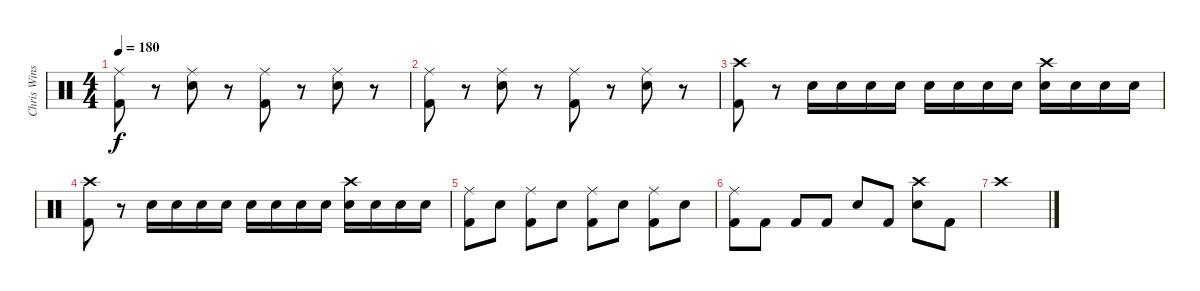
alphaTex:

\track ("Chris Winship (Drums)" "Chris Wins") {instrument percussion}
\staff {score}
\articulation defaults
\ts (4 4)
\tempo 180
\clef neutral
\ks c
("Ride (middle)" "Kick (hit) 2").8{dy f} r.8 ("Ride (middle)" "Electric Snare (hit)").8 r.8 ("Ride (middle)" "Kick (hit) 2").8 r.8 ("Ride (middle)" "Electric Snare (hit)").8 r.8 |
("Ride (middle)" "Kick (hit) 2").8 r.8 ("Ride (middle)" "Electric Snare (hit)").8 r.8 ("Ride (middle)" "Kick (hit) 2").8 r.8 ("Ride (middle)" "Electric Snare (hit)").8 r.8 |
("Crash high (hit)" "Kick (hit) 2").8 r.8 "Electric Snare (hit)".16 "Electric Snare (hit)".16 "Electric Snare (hit)".16 "Electric Snare (hit)".16 "Electric Snare (hit)".16 "Electric Snare (hit)".16 "Electric Snare (hit)".16 "Electric Snare (hit)".16 ("Crash high (hit)" "Electric Snare (hit)").16 "Electric Snare (hit)".16 "Electric Snare (hit)".16 "Electric Snare (hit)".16 |
("Crash high (hit)" "Kick (hit) 2").8 r.8 "Electric Snare (hit)".16 "Electric Snare (hit)".16 "Electric Snare (hit)".16 "Electric Snare (hit)".16 "Electric Snare (hit)".16 "Electric Snare (hit)".16 "Electric Snare (hit)".16 "Electric Snare (hit)".16 ("Crash high (hit)" "Electric Snare (hit)").16 "Electric Snare (hit)".16 "Electric Snare (hit)".16 "Electric Snare (hit)".16 |
("Ride (middle)" "Kick (hit) 2").8 "Electric Snare (hit)".8 ("Ride (middle)" "Kick (hit) 2").8 "Electric Snare (hit)".8 ("Ride (middle)" "Kick (hit) 2").8 "Electric Snare (hit)".8 ("Ride (middle)" "Kick (hit) 2").8 "Electric Snare (hit)".8 |
("Ride (middle)" "Kick (hit) 2").8 "Kick (hit) 2".8 "Kick (hit) 2".8 "Kick (hit) 2".8 "Electric Snare (hit)".8 "Kick (hit) 2".8 ("Crash high (hit)" "Electric Snare (hit)").8 "Kick (hit) 2".8 |
"Crash high (hit)".1
